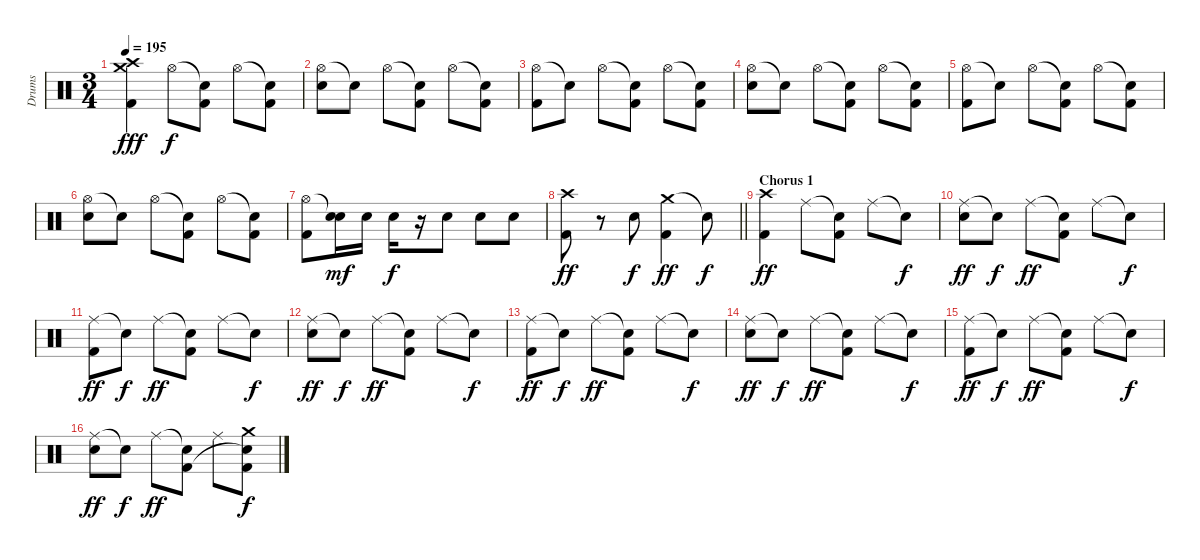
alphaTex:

\track ("Drums" "Drums") {instrument percussion}
\staff {score}
\articulation defaults
\ts (3 4)
\tempo 195
\clef neutral
\ks c
("Crash medium (hit)" "Crash high (hit)" "Kick (hit) 2").4{dy fff} "Hi-Hat (open)".8{dy f} ("Snare (hit)"{t} "Kick (hit) 2").8 "Hi-Hat (open)".8 ("Snare (hit)"{t} "Kick (hit) 2").8 |
("Hi-Hat (open)" "Electric Snare (hit)").8 "Snare (hit)"{t}.8 "Hi-Hat (open)".8 ("Snare (hit)"{t} "Kick (hit) 2").8 "Hi-Hat (open)".8 ("Snare (hit)"{t} "Kick (hit) 2").8 |
("Hi-Hat (open)" "Kick (hit) 2").8 "Snare (hit)"{t}.8 "Hi-Hat (open)".8 ("Snare (hit)"{t} "Kick (hit) 2").8 "Hi-Hat (open)".8 ("Snare (hit)"{t} "Kick (hit) 2").8 |
("Hi-Hat (open)" "Electric Snare (hit)").8 "Snare (hit)"{t}.8 "Hi-Hat (open)".8 ("Snare (hit)"{t} "Kick (hit) 2").8 "Hi-Hat (open)".8 ("Snare (hit)"{t} "Kick (hit) 2").8 |
("Hi-Hat (open)" "Kick (hit) 2").8 "Snare (hit)"{t}.8 "Hi-Hat (open)".8 ("Snare (hit)"{t} "Kick (hit) 2").8 "Hi-Hat (open)".8 ("Snare (hit)"{t} "Kick (hit) 2").8 |
("Hi-Hat (open)" "Electric Snare (hit)").8 "Snare (hit)"{t}.8 "Hi-Hat (open)".8 ("Snare (hit)"{t} "Kick (hit) 2").8 "Hi-Hat (open)".8 ("Snare (hit)"{t} "Kick (hit) 2").8 |
("Hi-Hat (open)" "Kick (hit) 2").8 ("Snare (hit)"{t} "Electric Snare (hit)").16{dy mf} "Electric Snare (hit)".16 "Electric Snare (hit)".16{dy f} r.16 "Electric Snare (hit)".8 "Electric Snare (hit)".8 "Electric Snare (hit)".8 |
\barLineRight lightlight
("Crash high (hit)" "Kick (hit) 2").8{dy ff} r.8 "Electric Snare (hit)".8{dy f} ("Crash medium (hit)" "Kick (hit) 2").4{dy ff} "Snare (hit)"{t}.8{dy f} |
\section ("" "Chorus 1")
("Crash high (hit)" "Kick (hit) 2").4{dy ff} "Ride (middle)".8 ("Snare (hit)"{t} "Kick (hit) 2").8 "Ride (middle)".8 "Snare (hit)"{t}.8{dy f} |
("Ride (middle)" "Electric Snare (hit)").8{dy ff} "Snare (hit)"{t}.8{dy f} "Ride (middle)".8{dy ff} ("Snare (hit)"{t} "Kick (hit) 2").8 "Ride (middle)".8 "Snare (hit)"{t}.8{dy f} |
("Ride (middle)" "Kick (hit) 2").8{dy ff} "Snare (hit)"{t}.8{dy f} "Ride (middle)".8{dy ff} ("Snare (hit)"{t} "Kick (hit) 2").8 "Ride (middle)".8 "Snare (hit)"{t}.8{dy f} |
("Ride (middle)" "Electric Snare (hit)").8{dy ff} "Snare (hit)"{t}.8{dy f} "Ride (middle)".8{dy ff} ("Snare (hit)"{t} "Kick (hit) 2").8 "Ride (middle)".8 "Snare (hit)"{t}.8{dy f} |
("Ride (middle)" "Kick (hit) 2").8{dy ff} "Snare (hit)"{t}.8{dy f} "Ride (middle)".8{dy ff} ("Snare (hit)"{t} "Kick (hit) 2").8 "Ride (middle)".8 "Snare (hit)"{t}.8{dy f} |
("Ride (middle)" "Electric Snare (hit)").8{dy ff} "Snare (hit)"{t}.8{dy f} "Ride (middle)".8{dy ff} ("Snare (hit)"{t} "Kick (hit) 2").8 "Ride (middle)".8 "Snare (hit)"{t}.8{dy f} |
("Ride (middle)" "Kick (hit) 2").8{dy ff} "Snare (hit)"{t}.8{dy f} "Ride (middle)".8{dy ff} ("Snare (hit)"{t} "Kick (hit) 2").8 "Ride (middle)".8 "Snare (hit)"{t}.8{dy f} |
("Ride (middle)" "Electric Snare (hit)").8{dy ff} "Snare (hit)"{t}.8{dy f} "Ride (middle)".8{dy ff} ("Snare (hit)"{t} "Kick (hit) 2").8 "Ride (middle)".8 ("Crash medium (hit)" "Snare (hit)"{t} "Kick (hit) 2").8{dy f}
